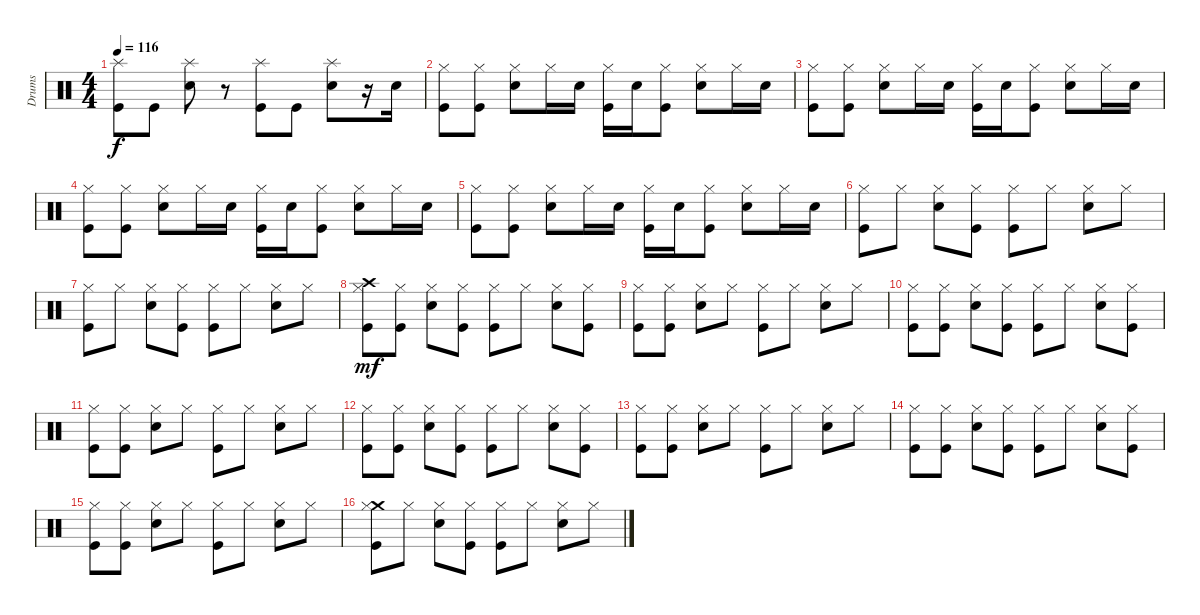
\track ("Drums" "Drums") {instrument percussion}
\staff {score}
\articulation defaults
\ts (4 4)
\tempo 116
\clef neutral
\ks c
("Splash (hit)" "Kick (hit)").8{dy f} "Kick (hit)".8 ("Splash (hit)" "Electric Snare (hit)").8 r.8 ("Splash (hit)" "Kick (hit)").8 "Kick (hit)".8 ("Splash (hit)" "Electric Snare (hit)").8 r.16 "Electric Snare (hit)".16 |
("Hi-Hat (closed)" "Kick (hit)").8 ("Hi-Hat (closed)" "Kick (hit)").8 ("Hi-Hat (closed)" "Electric Snare (hit)").8 "Hi-Hat (closed)".16 "Electric Snare (hit)".16 ("Hi-Hat (closed)" "Kick (hit)").16 "Electric Snare (hit)".16 ("Hi-Hat (closed)" "Kick (hit)").8 ("Hi-Hat (closed)" "Electric Snare (hit)").8 "Hi-Hat (closed)".16 "Electric Snare (hit)".16 |
("Hi-Hat (closed)" "Kick (hit)").8 ("Hi-Hat (closed)" "Kick (hit)").8 ("Hi-Hat (closed)" "Electric Snare (hit)").8 "Hi-Hat (closed)".16 "Electric Snare (hit)".16 ("Hi-Hat (closed)" "Kick (hit)").16 "Electric Snare (hit)".16 ("Hi-Hat (closed)" "Kick (hit)").8 ("Hi-Hat (closed)" "Electric Snare (hit)").8 "Hi-Hat (closed)".16 "Electric Snare (hit)".16 |
("Hi-Hat (closed)" "Kick (hit)").8 ("Hi-Hat (closed)" "Kick (hit)").8 ("Hi-Hat (closed)" "Electric Snare (hit)").8 "Hi-Hat (closed)".16 "Electric Snare (hit)".16 ("Hi-Hat (closed)" "Kick (hit)").16 "Electric Snare (hit)".16 ("Hi-Hat (closed)" "Kick (hit)").8 ("Hi-Hat (closed)" "Electric Snare (hit)").8 "Hi-Hat (closed)".16 "Electric Snare (hit)".16 |
("Hi-Hat (closed)" "Kick (hit)").8 ("Hi-Hat (closed)" "Kick (hit)").8 ("Hi-Hat (closed)" "Electric Snare (hit)").8 "Hi-Hat (closed)".16 "Electric Snare (hit)".16 ("Hi-Hat (closed)" "Kick (hit)").16 "Electric Snare (hit)".16 ("Hi-Hat (closed)" "Kick (hit)").8 ("Hi-Hat (closed)" "Electric Snare (hit)").8 "Hi-Hat (closed)".16 "Electric Snare (hit)".16 |
("Hi-Hat (closed)" "Kick (hit)").8 "Hi-Hat (closed)".8 ("Hi-Hat (closed)" "Electric Snare (hit)").8 ("Hi-Hat (closed)" "Kick (hit)").8 ("Hi-Hat (closed)" "Kick (hit)").8 "Hi-Hat (closed)".8 ("Hi-Hat (closed)" "Electric Snare (hit)").8 "Hi-Hat (closed)".8 |
("Hi-Hat (closed)" "Kick (hit)").8 "Hi-Hat (closed)".8 ("Hi-Hat (closed)" "Electric Snare (hit)").8 ("Hi-Hat (closed)" "Kick (hit)").8 ("Hi-Hat (closed)" "Kick (hit)").8 "Hi-Hat (closed)".8 ("Hi-Hat (closed)" "Electric Snare (hit)").8 "Hi-Hat (closed)".8 |
("Crash high (hit)" "Kick (hit)" "Hi-Hat (closed)").8{dy mf} ("Kick (hit)" "Hi-Hat (closed)").8 ("Electric Snare (hit)" "Hi-Hat (closed)").8 ("Kick (hit)" "Hi-Hat (closed)").8 ("Kick (hit)" "Hi-Hat (closed)").8 "Hi-Hat (closed)".8 ("Electric Snare (hit)" "Hi-Hat (closed)").8 ("Kick (hit)" "Hi-Hat (closed)").8 |
("Kick (hit)" "Hi-Hat (closed)").8 ("Kick (hit)" "Hi-Hat (closed)").8 ("Electric Snare (hit)" "Hi-Hat (closed)").8 "Hi-Hat (closed)".8 ("Kick (hit)" "Hi-Hat (closed)").8 "Hi-Hat (closed)".8 ("Electric Snare (hit)" "Hi-Hat (closed)").8 "Hi-Hat (closed)".8 |
("Kick (hit)" "Hi-Hat (closed)").8 ("Kick (hit)" "Hi-Hat (closed)").8 ("Electric Snare (hit)" "Hi-Hat (closed)").8 ("Kick (hit)" "Hi-Hat (closed)").8 ("Kick (hit)" "Hi-Hat (closed)").8 "Hi-Hat (closed)".8 ("Electric Snare (hit)" "Hi-Hat (closed)").8 ("Kick (hit)" "Hi-Hat (closed)").8 |
("Kick (hit)" "Hi-Hat (closed)").8 ("Kick (hit)" "Hi-Hat (closed)").8 ("Electric Snare (hit)" "Hi-Hat (closed)").8 "Hi-Hat (closed)".8 ("Kick (hit)" "Hi-Hat (closed)").8 "Hi-Hat (closed)".8 ("Electric Snare (hit)" "Hi-Hat (closed)").8 "Hi-Hat (closed)".8 |
("Kick (hit)" "Hi-Hat (closed)").8 ("Kick (hit)" "Hi-Hat (closed)").8 ("Electric Snare (hit)" "Hi-Hat (closed)").8 ("Kick (hit)" "Hi-Hat (closed)").8 ("Kick (hit)" "Hi-Hat (closed)").8 "Hi-Hat (closed)".8 ("Electric Snare (hit)" "Hi-Hat (closed)").8 ("Kick (hit)" "Hi-Hat (closed)").8 |
("Kick (hit)" "Hi-Hat (closed)").8 ("Kick (hit)" "Hi-Hat (closed)").8 ("Electric Snare (hit)" "Hi-Hat (closed)").8 "Hi-Hat (closed)".8 ("Kick (hit)" "Hi-Hat (closed)").8 "Hi-Hat (closed)".8 ("Electric Snare (hit)" "Hi-Hat (closed)").8 "Hi-Hat (closed)".8 |
("Kick (hit)" "Hi-Hat (closed)").8 ("Kick (hit)" "Hi-Hat (closed)").8 ("Electric Snare (hit)" "Hi-Hat (closed)").8 ("Kick (hit)" "Hi-Hat (closed)").8 ("Kick (hit)" "Hi-Hat (closed)").8 "Hi-Hat (closed)".8 ("Electric Snare (hit)" "Hi-Hat (closed)").8 ("Kick (hit)" "Hi-Hat (closed)").8 |
("Kick (hit)" "Hi-Hat (closed)").8 ("Kick (hit)" "Hi-Hat (closed)").8 ("Electric Snare (hit)" "Hi-Hat (closed)").8 "Hi-Hat (closed)".8 ("Kick (hit)" "Hi-Hat (closed)").8 "Hi-Hat (closed)".8 ("Electric Snare (hit)" "Hi-Hat (closed)").8 "Hi-Hat (closed)".8 |
("Crash medium (hit)" "Hi-Hat (closed)" "Kick (hit)").8 "Hi-Hat (closed)".8 ("Hi-Hat (closed)" "Electric Snare (hit)").8 ("Hi-Hat (closed)" "Kick (hit)").8 ("Hi-Hat (closed)" "Kick (hit)").8 "Hi-Hat (closed)".8 ("Hi-Hat (closed)" "Electric Snare (hit)").8 "Hi-Hat (closed)".8
